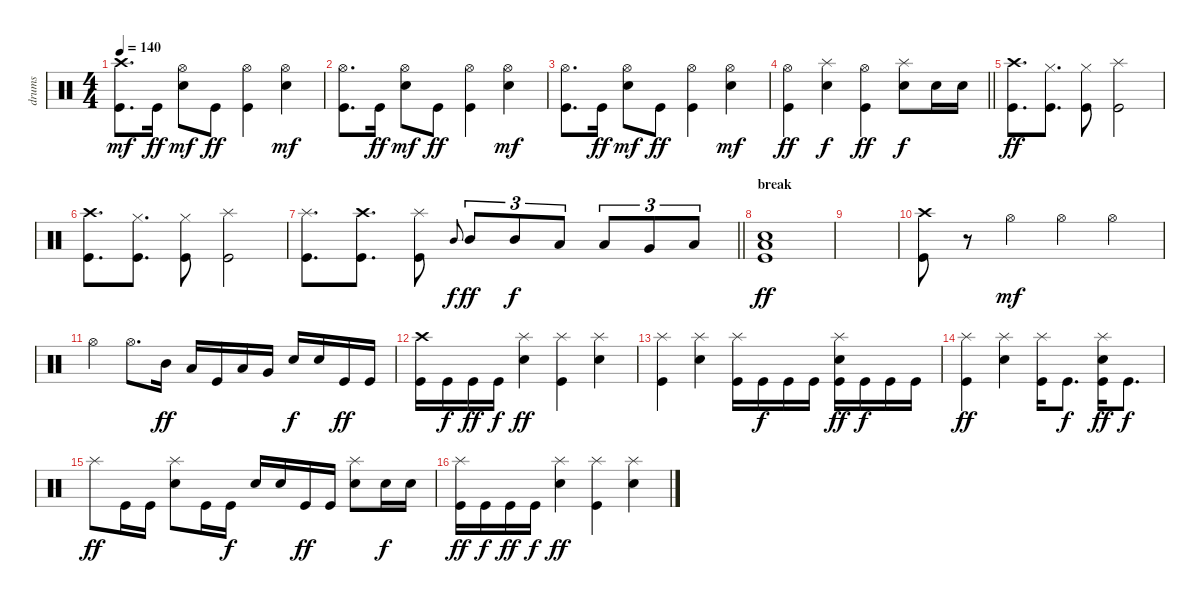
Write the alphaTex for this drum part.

\track ("drums" "drums") {instrument percussion}
\staff {score}
\articulation defaults
\ts (4 4)
\tempo 140
\clef neutral
\ks c
("Crash high (hit)" "Kick (hit)").8{d dy mf} "Kick (hit)".16{dy ff} ("Hi-Hat (open)" "Electric Snare (hit)").8{dy mf} "Kick (hit)".8{dy ff} ("Hi-Hat (open)" "Kick (hit)").4 ("Hi-Hat (open)" "Electric Snare (hit)").4{dy mf} |
("Hi-Hat (open)" "Kick (hit)").8{d} "Kick (hit)".16{dy ff} ("Hi-Hat (open)" "Electric Snare (hit)").8{dy mf} "Kick (hit)".8{dy ff} ("Hi-Hat (open)" "Kick (hit)").4 ("Hi-Hat (open)" "Electric Snare (hit)").4{dy mf} |
("Hi-Hat (open)" "Kick (hit)").8{d} "Kick (hit)".16{dy ff} ("Hi-Hat (open)" "Electric Snare (hit)").8{dy mf} "Kick (hit)".8{dy ff} ("Hi-Hat (open)" "Kick (hit)").4 ("Hi-Hat (open)" "Electric Snare (hit)").4{dy mf} |
\barLineRight lightlight
("Hi-Hat (open)" "Kick (hit)").4{dy ff} ("Splash (hit)" "Electric Snare (hit)").4{dy f} ("Hi-Hat (open)" "Kick (hit)").4{dy ff} ("Splash (hit)" "Electric Snare (hit)").8{dy f} "Electric Snare (hit)".16 "Electric Snare (hit)".16 |
("Crash high (hit)" "Kick (hit)").8{d dy ff} ("Hi-Hat (closed)" "Kick (hit)").8{d} ("Hi-Hat (closed)" "Kick (hit)").8 ("Splash (hit)" "Kick (hit)").2 |
("Crash high (hit)" "Kick (hit)").8{d} ("Hi-Hat (closed)" "Kick (hit)").8{d} ("Hi-Hat (closed)" "Kick (hit)").8 ("Splash (hit)" "Kick (hit)").2 |
\barLineRight lightlight
("Splash (hit)" "Kick (hit)").8{d} ("Crash high (hit)" "Kick (hit)").8{d} ("Splash (hit)" "Kick (hit)").8 "Mid Tom (hit)".8{gr onbeat dy f} "Mid Tom (hit)".8{tu (3 2) dy ff} "Mid Tom (hit)".8{tu (3 2) dy f} "Low Tom (hit)".8{tu (3 2)} "Low Tom (hit)".8{tu (3 2)} "Very Low Tom (hit)".8{tu (3 2)} "Low Floor Tom (hit)".8{tu (3 2)} |
\section ("" "break")
("Electric Snare (hit)" "Low Floor Tom (hit)" "Kick (hit)").1{dy ff} |
|
("Crash high (hit)" "Kick (hit)").8 r.8 "Hi-Hat (open)".4{dy mf} "Hi-Hat (open)".4 "Hi-Hat (open)".4 |
"Hi-Hat (open)".4 "Hi-Hat (open)".8{d} "Mid Tom (hit)".16{dy ff} "Low Tom (hit)".16 "Kick (hit)".16 "Low Tom (hit)".16 "Very Low Tom (hit)".16 "Electric Snare (hit)".16{dy f} "Electric Snare (hit)".16 "Kick (hit)".16{dy ff} "Kick (hit)".16 |
("Crash high (hit)" "Kick (hit)").16 "Kick (hit)".16{dy f} "Kick (hit)".16{dy ff} "Kick (hit)".16{dy f} ("Splash (hit)" "Electric Snare (hit)").4{dy ff} ("Splash (hit)" "Kick (hit)").4 ("Splash (hit)" "Electric Snare (hit)").4 |
("Splash (hit)" "Kick (hit)").4 ("Splash (hit)" "Electric Snare (hit)").4 ("Splash (hit)" "Kick (hit)").16 "Kick (hit)".16{dy f} "Kick (hit)".16 "Kick (hit)".16 ("Splash (hit)" "Electric Snare (hit)" "Kick (hit)").16{dy ff} "Kick (hit)".16{dy f} "Kick (hit)".16 "Kick (hit)".16 |
("Splash (hit)" "Kick (hit)").4{dy ff} ("Splash (hit)" "Electric Snare (hit)").4 ("Splash (hit)" "Kick (hit)").16 "Kick (hit)".8{d dy f} ("Splash (hit)" "Electric Snare (hit)" "Kick (hit)").16{dy ff} "Kick (hit)".8{d dy f} |
"Splash (hit)".8{dy ff} "Kick (hit)".16 "Kick (hit)".16 ("Splash (hit)" "Electric Snare (hit)").8 "Kick (hit)".16 "Kick (hit)".16{dy f} "Electric Snare (hit)".16 "Electric Snare (hit)".16 "Kick (hit)".16{dy ff} "Kick (hit)".16 ("Splash (hit)" "Electric Snare (hit)").8 "Electric Snare (hit)".16{dy f} "Electric Snare (hit)".16 |
("Splash (hit)" "Kick (hit)").16{dy ff} "Kick (hit)".16{dy f} "Kick (hit)".16{dy ff} "Kick (hit)".16{dy f} ("Splash (hit)" "Electric Snare (hit)").4{dy ff} ("Splash (hit)" "Kick (hit)").4 ("Splash (hit)" "Electric Snare (hit)").4
